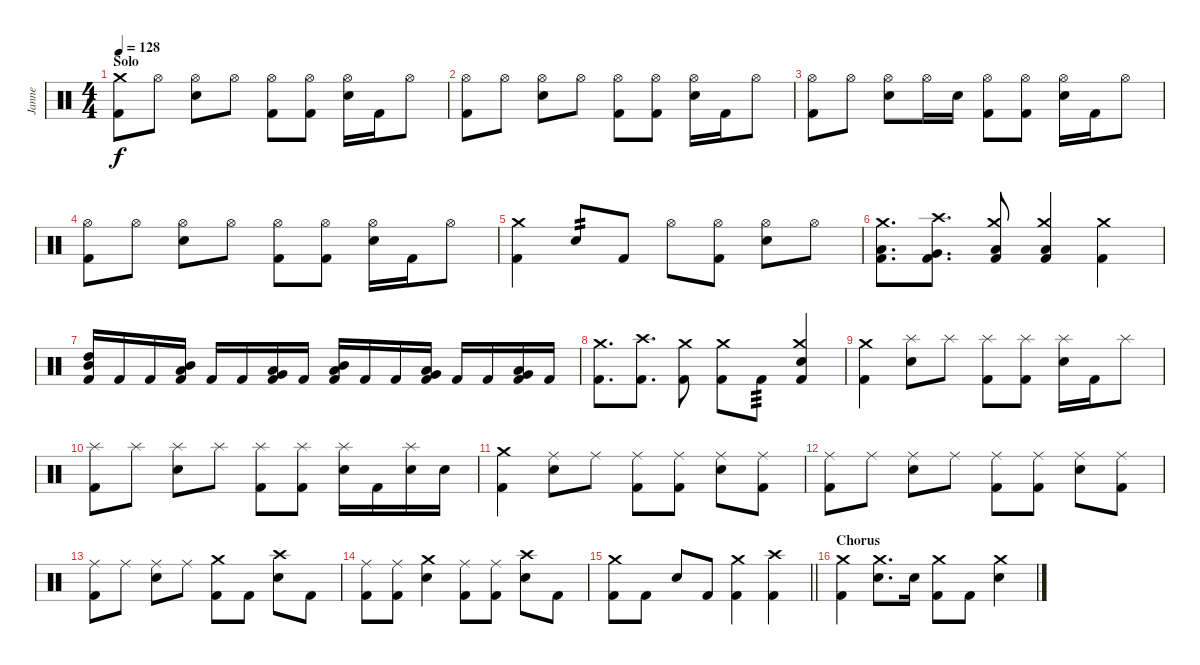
\track ("Janne" "Janne") {instrument percussion}
\staff {score}
\articulation defaults
\ts (4 4)
\section ("" "Solo")
\tempo 128
\clef neutral
\ks c
("Kick (hit) 2" "Crash medium (hit)").8{dy f} "Hi-Hat (open)".8 ("Snare (hit) 2" "Hi-Hat (open)").8 "Hi-Hat (open)".8 ("Kick (hit) 2" "Hi-Hat (open)").8 ("Kick (hit) 2" "Hi-Hat (open)").8 ("Snare (hit) 2" "Hi-Hat (open)").16 "Kick (hit) 2".16 "Hi-Hat (open)".8 |
("Kick (hit) 2" "Hi-Hat (open)").8 "Hi-Hat (open)".8 ("Snare (hit) 2" "Hi-Hat (open)").8 "Hi-Hat (open)".8 ("Kick (hit) 2" "Hi-Hat (open)").8 ("Kick (hit) 2" "Hi-Hat (open)").8 ("Snare (hit) 2" "Hi-Hat (open)").16 "Kick (hit) 2".16 "Hi-Hat (open)".8 |
("Kick (hit) 2" "Hi-Hat (open)").8 "Hi-Hat (open)".8 ("Snare (hit) 2" "Hi-Hat (open)").8 "Hi-Hat (open)".16 "Snare (hit) 2".16 ("Kick (hit) 2" "Hi-Hat (open)").8 ("Kick (hit) 2" "Hi-Hat (open)").8 ("Snare (hit) 2" "Hi-Hat (open)").16 "Kick (hit) 2".16 "Hi-Hat (open)".8 |
("Kick (hit) 2" "Hi-Hat (open)").8 "Hi-Hat (open)".8 ("Snare (hit) 2" "Hi-Hat (open)").8 "Hi-Hat (open)".8 ("Kick (hit) 2" "Hi-Hat (open)").8 ("Kick (hit) 2" "Hi-Hat (open)").8 ("Snare (hit) 2" "Hi-Hat (open)").16 "Kick (hit) 2".16 "Hi-Hat (open)".8 |
("Kick (hit) 2" "Crash medium (hit)").4 "Snare (hit) 2".8{tp 2} "Kick (hit) 2".8 "Hi-Hat (open)".8 ("Kick (hit) 2" "Hi-Hat (open)").8 ("Snare (hit) 2" "Hi-Hat (open)").8 "Hi-Hat (open)".8 |
("Kick (hit) 2" "Low Tom (hit)" "Crash medium (hit)").8{d} ("Kick (hit) 2" "Very Low Tom (hit)" "Crash high (hit)").8{d} ("Kick (hit) 2" "Low Floor Tom (hit)" "Crash medium (hit)").8 ("Kick (hit) 2" "Low Floor Tom (hit)" "Crash medium (hit)").4 ("Kick (hit) 2" "Crash medium (hit)").4 |
("Kick (hit) 2" "High Tom (hit)" "Mid Tom (hit)").16 "Kick (hit) 2".16 "Kick (hit) 2".16 ("Kick (hit) 2" "Mid Tom (hit)" "Low Tom (hit)").16 "Kick (hit) 2".16 "Kick (hit) 2".16 ("Kick (hit) 2" "Low Tom (hit)" "Very Low Tom (hit)").16 "Kick (hit) 2".16 ("Kick (hit) 2" "Mid Tom (hit)" "Low Tom (hit)").16 "Kick (hit) 2".16 "Kick (hit) 2".16 ("Kick (hit) 2" "Low Tom (hit)" "Very Low Tom (hit)").16 "Kick (hit) 2".16 "Kick (hit) 2".16 ("Kick (hit) 2" "Very Low Tom (hit)" "Low Floor Tom (hit)").16 "Kick (hit) 2".16 |
("Kick (hit) 2" "Crash medium (hit)").8{d} ("Kick (hit) 2" "Crash high (hit)").8{d} ("Kick (hit) 2" "Crash medium (hit)").8 ("Kick (hit) 2" "Crash medium (hit)").8 "Kick (hit) 2".8{tp 3} ("Kick (hit) 2" "Snare (hit) 2" "Crash medium (hit)").4 |
("Kick (hit) 2" "Crash medium (hit)").4 ("Snare (hit) 2" "Splash (hit)").8 "Splash (hit)".8 ("Kick (hit) 2" "Splash (hit)").8 ("Kick (hit) 2" "Splash (hit)").8 ("Snare (hit) 2" "Splash (hit)").16 "Kick (hit) 2".16 "Splash (hit)".8 |
("Kick (hit) 2" "Splash (hit)").8 "Splash (hit)".8 ("Snare (hit) 2" "Splash (hit)").8 "Splash (hit)".8 ("Kick (hit) 2" "Splash (hit)").8 ("Kick (hit) 2" "Splash (hit)").8 ("Snare (hit) 2" "Splash (hit)").16 "Kick (hit) 2".16 ("Snare (hit) 2" "Splash (hit)").16 "Snare (hit) 2".16 |
("Kick (hit) 2" "Crash medium (hit)").4 ("Snare (hit) 2" "Ride (middle)").8 "Ride (middle)".8 ("Kick (hit) 2" "Ride (middle)").8 ("Kick (hit) 2" "Ride (middle)").8 ("Snare (hit) 2" "Ride (middle)").8 ("Kick (hit) 2" "Ride (middle)").8 |
("Kick (hit) 2" "Ride (middle)").8 "Ride (middle)".8 ("Snare (hit) 2" "Ride (middle)").8 "Ride (middle)".8 ("Kick (hit) 2" "Ride (middle)").8 ("Kick (hit) 2" "Ride (middle)").8 ("Snare (hit) 2" "Ride (middle)").8 ("Kick (hit) 2" "Ride (middle)").8 |
("Kick (hit) 2" "Ride (middle)").8 "Ride (middle)".8 ("Snare (hit) 2" "Ride (middle)").8 "Ride (middle)".8 ("Kick (hit) 2" "Crash medium (hit)").8 "Kick (hit) 2".8 ("Snare (hit) 2" "Crash high (hit)").8 "Kick (hit) 2".8 |
("Kick (hit) 2" "Ride (middle)").8 ("Kick (hit) 2" "Ride (middle)").8 ("Snare (hit) 2" "Crash medium (hit)").4 ("Kick (hit) 2" "Ride (middle)").8 ("Kick (hit) 2" "Ride (middle)").8 ("Snare (hit) 2" "Crash high (hit)").8 "Kick (hit) 2".8 |
\barLineRight lightlight
("Kick (hit) 2" "Crash medium (hit)").8 "Kick (hit) 2".8 "Snare (hit) 2".8 "Kick (hit) 2".8 ("Kick (hit) 2" "Crash medium (hit)").4 ("Kick (hit) 2" "Crash high (hit)").4 |
\section ("" "Chorus")
("Kick (hit) 2" "Crash medium (hit)").4 ("Snare (hit) 2" "Crash medium (hit)").8{d} "Snare (hit) 2".16 ("Kick (hit) 2" "Crash medium (hit)").8 "Kick (hit) 2".8 ("Snare (hit) 2" "Crash medium (hit)").4
